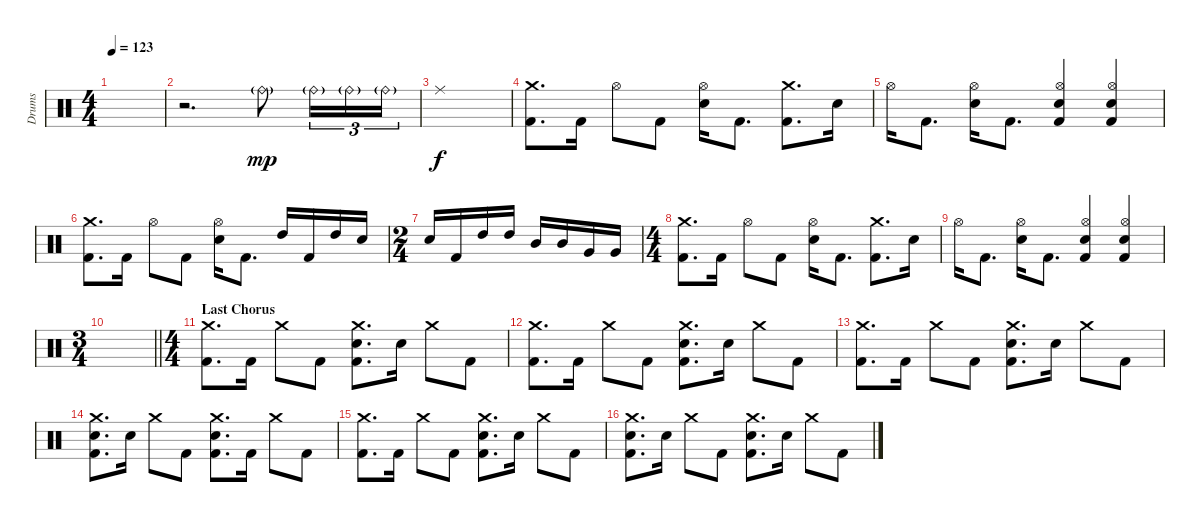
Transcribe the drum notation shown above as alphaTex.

\track ("Drums" "Drums") {instrument percussion}
\staff {score}
\articulation defaults
\ts (4 4)
\tempo 123
\clef neutral
\ks c
|
r.2{d} "Ride (bell)"{g}.8{dy mp} "Ride (bell)"{g}.16{tu (3 2)} "Ride (bell)"{g}.16{tu (3 2)} "Ride (bell)"{g}.16{tu (3 2)} |
"Ride (middle)".1{dy f} |
("Crash medium (hit)" "Kick (hit) 2").8{d} "Kick (hit) 2".16 "Hi-Hat (open)".8 "Kick (hit) 2".8 ("Hi-Hat (open)" "Electric Snare (hit)").16 "Kick (hit) 2".8{d} ("Crash medium (hit)" "Kick (hit) 2").8{d} "Electric Snare (hit)".16 |
"Hi-Hat (open)".16 "Kick (hit) 2".8{d} ("Hi-Hat (open)" "Electric Snare (hit)").16 "Kick (hit) 2".8{d} ("Hi-Hat (open)" "Electric Snare (hit)" "Kick (hit) 2").4 ("Hi-Hat (open)" "Electric Snare (hit)" "Kick (hit) 2").4 |
("Crash medium (hit)" "Kick (hit) 2").8{d} "Kick (hit) 2".16 "Hi-Hat (open)".8 "Kick (hit) 2".8 ("Hi-Hat (open)" "Electric Snare (hit)").16 "Kick (hit) 2".8{d} "High Tom (hit)".16 "Kick (hit) 2".16 "High Tom (hit)".16 "Electric Snare (hit)".16 |
\ts (2 4)
"Electric Snare (hit)".16 "Kick (hit) 2".16 "High Tom (hit)".16 "High Tom (hit)".16 "Mid Tom (hit)".16 "Mid Tom (hit)".16 "Very Low Tom (hit)".16 "Very Low Tom (hit)".16 |
\ts (4 4)
("Crash medium (hit)" "Kick (hit) 2").8{d} "Kick (hit) 2".16 "Hi-Hat (open)".8 "Kick (hit) 2".8 ("Hi-Hat (open)" "Electric Snare (hit)").16 "Kick (hit) 2".8{d} ("Crash medium (hit)" "Kick (hit) 2").8{d} "Electric Snare (hit)".16 |
"Hi-Hat (open)".16 "Kick (hit) 2".8{d} ("Hi-Hat (open)" "Electric Snare (hit)").16 "Kick (hit) 2".8{d} ("Hi-Hat (open)" "Electric Snare (hit)" "Kick (hit) 2").4 ("Hi-Hat (open)" "Electric Snare (hit)" "Kick (hit) 2").4 |
\ts (3 4)
\barLineRight lightlight
|
\ts (4 4)
\section ("" "Last Chorus")
("Crash medium (hit)" "Kick (hit) 2").8{d} "Kick (hit) 2".16 "Crash medium (hit)".8 "Kick (hit) 2".8 ("Crash medium (hit)" "Electric Snare (hit)" "Kick (hit) 2").8{d} "Electric Snare (hit)".16 "Crash medium (hit)".8 "Kick (hit) 2".8 |
("Crash medium (hit)" "Kick (hit) 2").8{d} "Kick (hit) 2".16 "Crash medium (hit)".8 "Kick (hit) 2".8 ("Crash medium (hit)" "Electric Snare (hit)" "Kick (hit) 2").8{d} "Electric Snare (hit)".16 "Crash medium (hit)".8 "Kick (hit) 2".8 |
("Crash medium (hit)" "Kick (hit) 2").8{d} "Kick (hit) 2".16 "Crash medium (hit)".8 "Kick (hit) 2".8 ("Crash medium (hit)" "Electric Snare (hit)" "Kick (hit) 2").8{d} "Electric Snare (hit)".16 "Crash medium (hit)".8 "Kick (hit) 2".8 |
("Crash medium (hit)" "Electric Snare (hit)" "Kick (hit) 2").8{d} "Electric Snare (hit)".16 "Crash medium (hit)".8 "Kick (hit) 2".8 ("Crash medium (hit)" "Electric Snare (hit)" "Kick (hit) 2").8{d} "Kick (hit) 2".16 "Crash medium (hit)".8 "Kick (hit) 2".8 |
("Crash medium (hit)" "Kick (hit) 2").8{d} "Kick (hit) 2".16 "Crash medium (hit)".8 "Kick (hit) 2".8 ("Crash medium (hit)" "Electric Snare (hit)" "Kick (hit) 2").8{d} "Electric Snare (hit)".16 "Crash medium (hit)".8 "Kick (hit) 2".8 |
("Crash medium (hit)" "Electric Snare (hit)" "Kick (hit) 2").8{d} "Electric Snare (hit)".16 "Crash medium (hit)".8 "Kick (hit) 2".8 ("Crash medium (hit)" "Electric Snare (hit)" "Kick (hit) 2").8{d} "Electric Snare (hit)".16 "Crash medium (hit)".8 "Kick (hit) 2".8
